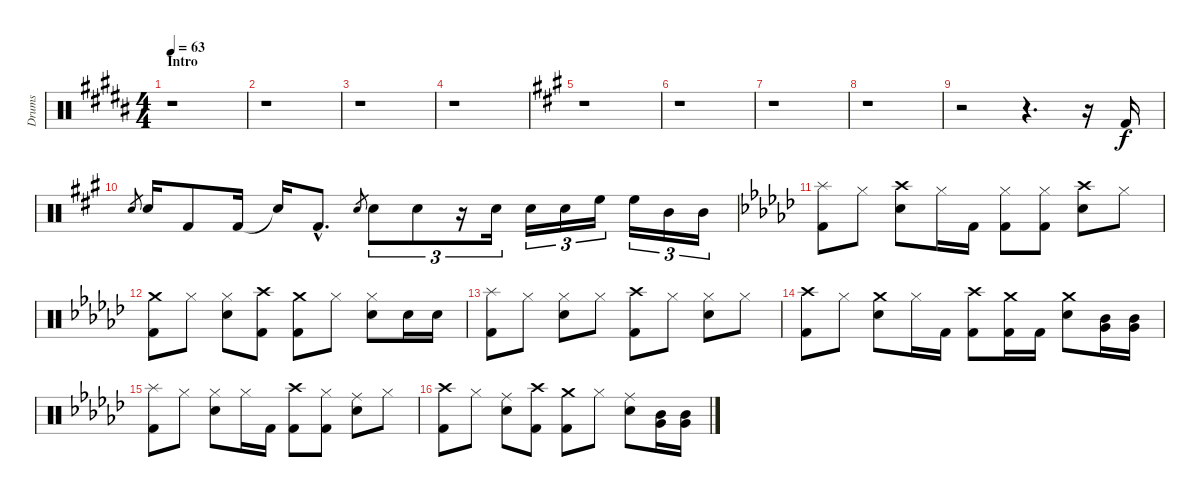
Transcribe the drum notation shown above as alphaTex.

\track ("Drums" "Drums") {instrument percussion}
\staff {score}
\articulation defaults
\ts (4 4)
\section ("" "Intro")
\tempo 63
\clef neutral
\ks g#minor
r.1{dy f} |
r.1 |
r.1 |
r.1 |
\ks f#minor
r.1 |
r.1 |
r.1 |
r.1 |
r.2 r.4{d} r.16 "Kick (hit) 2".16 |
"Snare (hit) 2".8{gr} "Snare (hit) 2".16 "Kick (hit) 2".8 "Kick (hit) 2".16 "Snare (hit)"{t}.16 "Kick (hit) 2"{hac}.8{d} "Snare (hit) 2".8{gr} "Snare (hit) 2".8{tu (3 2)} "Snare (hit) 2".8{tu (3 2)} r.16{tu (3 2)} "Snare (hit) 2".16{tu (3 2)} "Snare (hit) 2".16{tu (3 2)} "Snare (hit) 2".16{tu (3 2)} "High Floor Tom (hit)".16{tu (3 2)} "High Floor Tom (hit)".16{tu (3 2)} "Mid Tom (hit)".16{tu (3 2)} "Mid Tom (hit)".16{tu (3 2)} |
\ks ebminor
("Splash (hit)" "Kick (hit) 2").8 "Hi-Hat (closed)".8 ("Crash high (hit)" "Snare (hit) 2").8 "Hi-Hat (closed)".16 "Kick (hit) 2".16 ("Hi-Hat (closed)" "Kick (hit) 2").8 ("Hi-Hat (closed)" "Kick (hit) 2").8 ("Crash high (hit)" "Snare (hit) 2").8 "Hi-Hat (closed)".8 |
("Crash medium (hit)" "Kick (hit) 2").8 "Hi-Hat (closed)".8 ("Hi-Hat (closed)" "Snare (hit) 2").8 ("Crash high (hit)" "Kick (hit) 2").8 ("Crash medium (hit)" "Kick (hit) 2").8 "Hi-Hat (closed)".8 ("Hi-Hat (closed)" "Snare (hit) 2").8 "Snare (hit) 2".16 "Snare (hit) 2".16 |
("Splash (hit)" "Kick (hit) 2").8 "Hi-Hat (closed)".8 ("Hi-Hat (closed)" "Snare (hit) 2").8 "Hi-Hat (closed)".8 ("Crash high (hit)" "Kick (hit) 2").8 "Hi-Hat (closed)".8 ("Hi-Hat (closed)" "Snare (hit) 2").8 "Hi-Hat (closed)".8 |
("Crash high (hit)" "Kick (hit) 2").8 "Hi-Hat (closed)".8 ("Crash medium (hit)" "Snare (hit) 2").8 "Hi-Hat (closed)".16 "Kick (hit) 2".16 ("Crash high (hit)" "Kick (hit) 2").8 ("Crash medium (hit)" "Kick (hit) 2").16 "Kick (hit) 2".16 ("Crash medium (hit)" "Snare (hit) 2").8 ("Mid Tom (hit)" "Very Low Tom (hit)").16 ("Mid Tom (hit)" "Very Low Tom (hit)").16 |
("Splash (hit)" "Kick (hit) 2").8 "Hi-Hat (closed)".8 ("Hi-Hat (closed)" "Snare (hit) 2").8 "Hi-Hat (closed)".16 "Kick (hit) 2".16 ("Crash high (hit)" "Kick (hit) 2").8 ("Hi-Hat (closed)" "Kick (hit) 2").8 ("Ride (middle)" "Snare (hit) 2").8 "Hi-Hat (closed)".8 |
("Crash high (hit)" "Kick (hit) 2").8 "Hi-Hat (closed)".8 ("Ride (middle)" "Snare (hit) 2").8 ("Crash high (hit)" "Kick (hit) 2").8 ("Crash medium (hit)" "Kick (hit) 2").8 "Hi-Hat (closed)".8 ("Ride (middle)" "Snare (hit) 2").8 ("Mid Tom (hit)" "Very Low Tom (hit)").16 ("Mid Tom (hit)" "Very Low Tom (hit)").16
